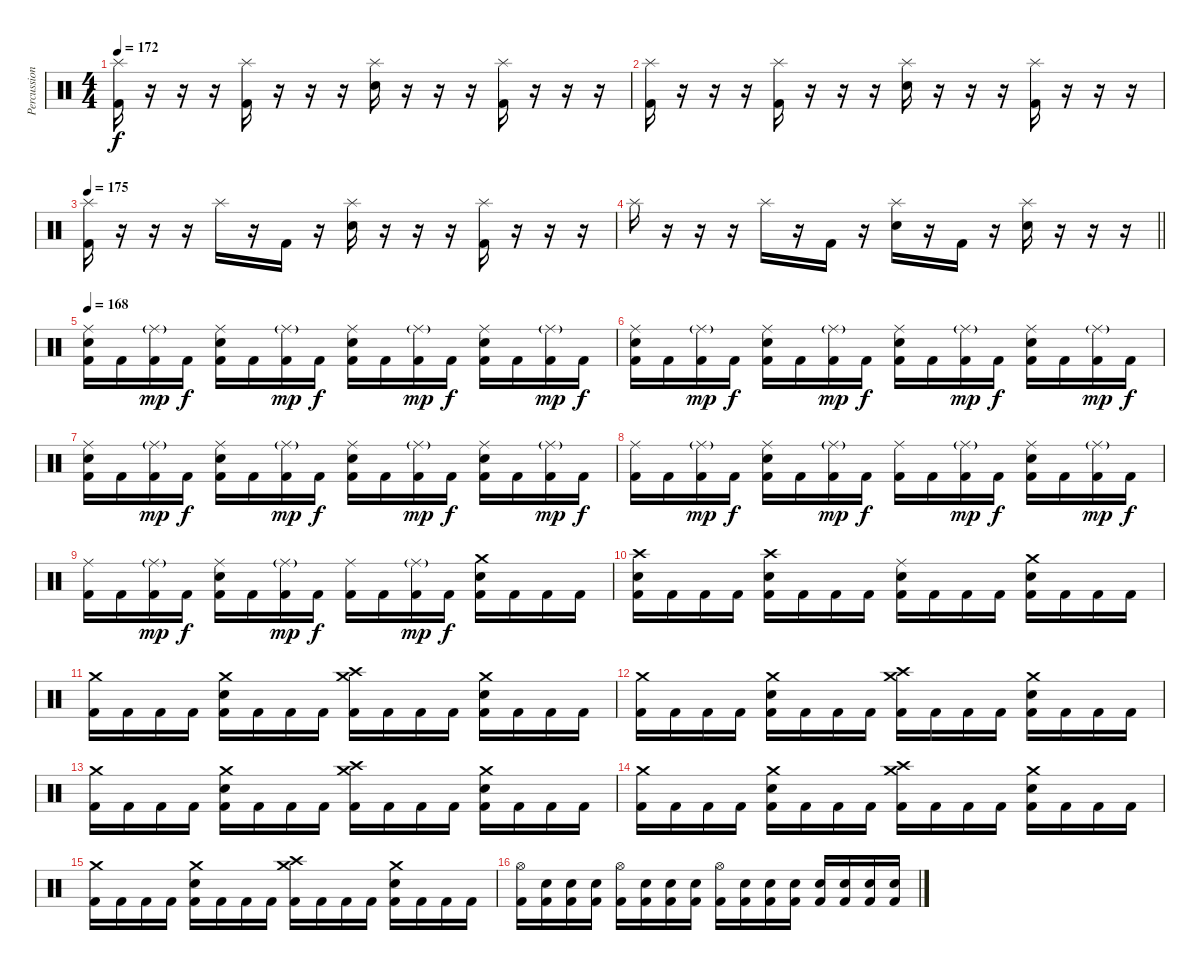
\track ("Percussion" "Percussion") {instrument percussion}
\staff {score}
\articulation defaults
\ts (4 4)
\tempo 172
\clef neutral
\ks c
("Splash (hit)" "Kick (hit) 2").16{dy f} r.16 r.16 r.16 ("Splash (hit)" "Kick (hit) 2").16 r.16 r.16 r.16 ("Splash (hit)" "Electric Snare (hit)").16 r.16 r.16 r.16 ("Splash (hit)" "Kick (hit) 2").16 r.16 r.16 r.16 |
("Splash (hit)" "Kick (hit) 2").16 r.16 r.16 r.16 ("Splash (hit)" "Kick (hit) 2").16 r.16 r.16 r.16 ("Splash (hit)" "Electric Snare (hit)").16 r.16 r.16 r.16 ("Splash (hit)" "Kick (hit) 2").16 r.16 r.16 r.16 |
\tempo 175
("Splash (hit)" "Kick (hit) 2").16 r.16 r.16 r.16 "Splash (hit)".16 r.16 "Kick (hit) 2".16 r.16 ("Splash (hit)" "Electric Snare (hit)").16 r.16 r.16 r.16 ("Splash (hit)" "Kick (hit) 2").16 r.16 r.16 r.16 |
\barLineRight lightlight "Splash (hit)".16
r.16 r.16 r.16 "Splash (hit)".16 r.16 "Kick (hit) 2".16 r.16 ("Splash (hit)" "Electric Snare (hit)").16 r.16 "Kick (hit) 2".16 r.16 ("Splash (hit)" "Electric Snare (hit)").16 r.16 r.16 r.16 |
\section ("" "")
\tempo 168
("Ride (middle)" "Electric Snare (hit)" "Kick (hit) 2").16 "Kick (hit) 2".16 ("Ride (middle)"{g} "Kick (hit) 2").16{dy mp} "Kick (hit) 2".16{dy f} ("Ride (middle)" "Electric Snare (hit)" "Kick (hit) 2").16 "Kick (hit) 2".16 ("Ride (middle)"{g} "Kick (hit) 2").16{dy mp} "Kick (hit) 2".16{dy f} ("Ride (middle)" "Electric Snare (hit)" "Kick (hit) 2").16 "Kick (hit) 2".16 ("Ride (middle)"{g} "Kick (hit) 2").16{dy mp} "Kick (hit) 2".16{dy f} ("Ride (middle)" "Electric Snare (hit)" "Kick (hit) 2").16 "Kick (hit) 2".16 ("Ride (middle)"{g} "Kick (hit) 2").16{dy mp} "Kick (hit) 2".16{dy f} |
("Ride (middle)" "Electric Snare (hit)" "Kick (hit) 2").16 "Kick (hit) 2".16 ("Ride (middle)"{g} "Kick (hit) 2").16{dy mp} "Kick (hit) 2".16{dy f} ("Ride (middle)" "Electric Snare (hit)" "Kick (hit) 2").16 "Kick (hit) 2".16 ("Ride (middle)"{g} "Kick (hit) 2").16{dy mp} "Kick (hit) 2".16{dy f} ("Ride (middle)" "Electric Snare (hit)" "Kick (hit) 2").16 "Kick (hit) 2".16 ("Ride (middle)"{g} "Kick (hit) 2").16{dy mp} "Kick (hit) 2".16{dy f} ("Ride (middle)" "Electric Snare (hit)" "Kick (hit) 2").16 "Kick (hit) 2".16 ("Ride (middle)"{g} "Kick (hit) 2").16{dy mp} "Kick (hit) 2".16{dy f} |
("Ride (middle)" "Electric Snare (hit)" "Kick (hit) 2").16 "Kick (hit) 2".16 ("Ride (middle)"{g} "Kick (hit) 2").16{dy mp} "Kick (hit) 2".16{dy f} ("Ride (middle)" "Electric Snare (hit)" "Kick (hit) 2").16 "Kick (hit) 2".16 ("Ride (middle)"{g} "Kick (hit) 2").16{dy mp} "Kick (hit) 2".16{dy f} ("Ride (middle)" "Electric Snare (hit)" "Kick (hit) 2").16 "Kick (hit) 2".16 ("Ride (middle)"{g} "Kick (hit) 2").16{dy mp} "Kick (hit) 2".16{dy f} ("Ride (middle)" "Electric Snare (hit)" "Kick (hit) 2").16 "Kick (hit) 2".16 ("Ride (middle)"{g} "Kick (hit) 2").16{dy mp} "Kick (hit) 2".16{dy f} |
("Ride (middle)" "Kick (hit) 2").16 "Kick (hit) 2".16 ("Ride (middle)"{g} "Kick (hit) 2").16{dy mp} "Kick (hit) 2".16{dy f} ("Ride (middle)" "Electric Snare (hit)" "Kick (hit) 2").16 "Kick (hit) 2".16 ("Ride (middle)"{g} "Kick (hit) 2").16{dy mp} "Kick (hit) 2".16{dy f} ("Ride (middle)" "Kick (hit) 2").16 "Kick (hit) 2".16 ("Ride (middle)"{g} "Kick (hit) 2").16{dy mp} "Kick (hit) 2".16{dy f} ("Ride (middle)" "Electric Snare (hit)" "Kick (hit) 2").16 "Kick (hit) 2".16 ("Ride (middle)"{g} "Kick (hit) 2").16{dy mp} "Kick (hit) 2".16{dy f} |
("Ride (middle)" "Kick (hit) 2").16 "Kick (hit) 2".16 ("Ride (middle)"{g} "Kick (hit) 2").16{dy mp} "Kick (hit) 2".16{dy f} ("Ride (middle)" "Electric Snare (hit)" "Kick (hit) 2").16 "Kick (hit) 2".16 ("Ride (middle)"{g} "Kick (hit) 2").16{dy mp} "Kick (hit) 2".16{dy f} ("Ride (middle)" "Kick (hit) 2").16 "Kick (hit) 2".16 ("Ride (middle)"{g} "Kick (hit) 2").16{dy mp} "Kick (hit) 2".16{dy f} ("Crash medium (hit)" "Electric Snare (hit)" "Kick (hit) 2").16 "Kick (hit) 2".16 "Kick (hit) 2".16 "Kick (hit) 2".16 |
("Crash high (hit)" "Electric Snare (hit)" "Kick (hit) 2").16 "Kick (hit) 2".16 "Kick (hit) 2".16 "Kick (hit) 2".16 ("Crash high (hit)" "Electric Snare (hit)" "Kick (hit) 2").16 "Kick (hit) 2".16 "Kick (hit) 2".16 "Kick (hit) 2".16 ("Ride (middle)" "Electric Snare (hit)" "Kick (hit) 2").16 "Kick (hit) 2".16 "Kick (hit) 2".16 "Kick (hit) 2".16 ("Crash medium (hit)" "Electric Snare (hit)" "Kick (hit) 2").16 "Kick (hit) 2".16 "Kick (hit) 2".16 "Kick (hit) 2".16 |
("Crash medium (hit)" "Kick (hit) 2").16 "Kick (hit) 2".16 "Kick (hit) 2".16 "Kick (hit) 2".16 ("Crash medium (hit)" "Electric Snare (hit)" "Kick (hit) 2").16 "Kick (hit) 2".16 "Kick (hit) 2".16 "Kick (hit) 2".16 ("Crash medium (hit)" "Crash high (hit)" "Kick (hit) 2").16 "Kick (hit) 2".16 "Kick (hit) 2".16 "Kick (hit) 2".16 ("Crash medium (hit)" "Electric Snare (hit)" "Kick (hit) 2").16 "Kick (hit) 2".16 "Kick (hit) 2".16 "Kick (hit) 2".16 |
("Crash medium (hit)" "Kick (hit) 2").16 "Kick (hit) 2".16 "Kick (hit) 2".16 "Kick (hit) 2".16 ("Crash medium (hit)" "Electric Snare (hit)" "Kick (hit) 2").16 "Kick (hit) 2".16 "Kick (hit) 2".16 "Kick (hit) 2".16 ("Crash medium (hit)" "Crash high (hit)" "Kick (hit) 2").16 "Kick (hit) 2".16 "Kick (hit) 2".16 "Kick (hit) 2".16 ("Crash medium (hit)" "Electric Snare (hit)" "Kick (hit) 2").16 "Kick (hit) 2".16 "Kick (hit) 2".16 "Kick (hit) 2".16 |
("Crash medium (hit)" "Kick (hit) 2").16 "Kick (hit) 2".16 "Kick (hit) 2".16 "Kick (hit) 2".16 ("Crash medium (hit)" "Electric Snare (hit)" "Kick (hit) 2").16 "Kick (hit) 2".16 "Kick (hit) 2".16 "Kick (hit) 2".16 ("Crash medium (hit)" "Crash high (hit)" "Kick (hit) 2").16 "Kick (hit) 2".16 "Kick (hit) 2".16 "Kick (hit) 2".16 ("Crash medium (hit)" "Electric Snare (hit)" "Kick (hit) 2").16 "Kick (hit) 2".16 "Kick (hit) 2".16 "Kick (hit) 2".16 |
("Crash medium (hit)" "Kick (hit) 2").16 "Kick (hit) 2".16 "Kick (hit) 2".16 "Kick (hit) 2".16 ("Crash medium (hit)" "Electric Snare (hit)" "Kick (hit) 2").16 "Kick (hit) 2".16 "Kick (hit) 2".16 "Kick (hit) 2".16 ("Crash medium (hit)" "Crash high (hit)" "Kick (hit) 2").16 "Kick (hit) 2".16 "Kick (hit) 2".16 "Kick (hit) 2".16 ("Crash medium (hit)" "Electric Snare (hit)" "Kick (hit) 2").16 "Kick (hit) 2".16 "Kick (hit) 2".16 "Kick (hit) 2".16 |
("Crash medium (hit)" "Kick (hit) 2").16 "Kick (hit) 2".16 "Kick (hit) 2".16 "Kick (hit) 2".16 ("Crash medium (hit)" "Electric Snare (hit)" "Kick (hit) 2").16 "Kick (hit) 2".16 "Kick (hit) 2".16 "Kick (hit) 2".16 ("Crash medium (hit)" "Crash high (hit)" "Kick (hit) 2").16 "Kick (hit) 2".16 "Kick (hit) 2".16 "Kick (hit) 2".16 ("Crash medium (hit)" "Electric Snare (hit)" "Kick (hit) 2").16 "Kick (hit) 2".16 "Kick (hit) 2".16 "Kick (hit) 2".16 |
("Hi-Hat (open)" "Kick (hit) 2").16 ("Electric Snare (hit)" "Kick (hit) 2").16 ("Electric Snare (hit)" "Kick (hit) 2").16 ("Electric Snare (hit)" "Kick (hit) 2").16 ("Hi-Hat (open)" "Kick (hit) 2").16 ("Electric Snare (hit)" "Kick (hit) 2").16 ("Electric Snare (hit)" "Kick (hit) 2").16 ("Electric Snare (hit)" "Kick (hit) 2").16 ("Hi-Hat (open)" "Kick (hit) 2").16 ("Electric Snare (hit)" "Kick (hit) 2").16 ("Electric Snare (hit)" "Kick (hit) 2").16 ("Electric Snare (hit)" "Kick (hit) 2").16 ("Electric Snare (hit)" "Kick (hit) 2").16 ("Electric Snare (hit)" "Kick (hit) 2").16 ("Electric Snare (hit)" "Kick (hit) 2").16 ("Electric Snare (hit)" "Kick (hit) 2").16
